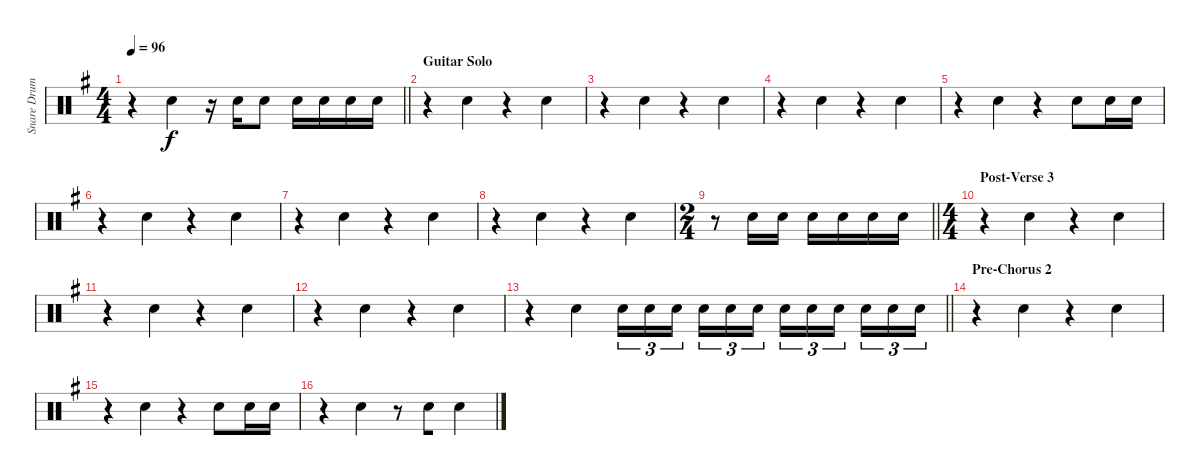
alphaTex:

\track ("Snare Drum - reverb" "Snare Drum") {instrument percussion}
\staff {score}
\articulation defaults
\ts (4 4)
\tempo 96
\clef neutral
\barLineRight lightlight
\ks g
r.4{dy f beam merge} "Snare (hit) 2".4 r.16 "Snare (hit) 2".16 "Snare (hit) 2".8 "Snare (hit) 2".16 "Snare (hit) 2".16 "Snare (hit) 2".16 "Snare (hit) 2".16 |
\section ("" "Guitar Solo")
r.4{beam merge} "Snare (hit) 2".4 r.4{beam merge} "Snare (hit) 2".4 |
r.4{beam merge} "Snare (hit) 2".4 r.4{beam merge} "Snare (hit) 2".4 |
r.4{beam merge} "Snare (hit) 2".4 r.4{beam merge} "Snare (hit) 2".4 |
r.4{beam merge} "Snare (hit) 2".4 r.4 "Snare (hit) 2".8 "Snare (hit) 2".16 "Snare (hit) 2".16 |
r.4{beam merge} "Snare (hit) 2".4 r.4{beam merge} "Snare (hit) 2".4 |
r.4{beam merge} "Snare (hit) 2".4 r.4{beam merge} "Snare (hit) 2".4 |
r.4{beam merge} "Snare (hit) 2".4 r.4{beam merge} "Snare (hit) 2".4 |
\ts (2 4)
\barLineRight lightlight
r.8 "Snare (hit) 2".16 "Snare (hit) 2".16 "Snare (hit) 2".16 "Snare (hit) 2".16 "Snare (hit) 2".16 "Snare (hit) 2".16 |
\ts (4 4)
\section ("" "Post-Verse 3")
r.4{beam merge} "Snare (hit) 2".4 r.4{beam merge} "Snare (hit) 2".4 |
r.4{beam merge} "Snare (hit) 2".4 r.4{beam merge} "Snare (hit) 2".4 |
r.4{beam merge} "Snare (hit) 2".4 r.4{beam merge} "Snare (hit) 2".4 |
\barLineRight lightlight
r.4{beam merge} "Snare (hit) 2".4 "Snare (hit) 2".16{tu (3 2)} "Snare (hit) 2".16{tu (3 2)} "Snare (hit) 2".16{tu (3 2) beam splitsecondary} "Snare (hit) 2".16{tu (3 2)} "Snare (hit) 2".16{tu (3 2)} "Snare (hit) 2".16{tu (3 2)} "Snare (hit) 2".16{tu (3 2)} "Snare (hit) 2".16{tu (3 2)} "Snare (hit) 2".16{tu (3 2) beam splitsecondary} "Snare (hit) 2".16{tu (3 2)} "Snare (hit) 2".16{tu (3 2)} "Snare (hit) 2".16{tu (3 2)} |
\section ("" "Pre-Chorus 2")
r.4{beam merge} "Snare (hit) 2".4 r.4{beam merge} "Snare (hit) 2".4 |
r.4{beam merge} "Snare (hit) 2".4 r.4 "Snare (hit) 2".8 "Snare (hit) 2".16 "Snare (hit) 2".16 |
r.4{beam merge} "Snare (hit) 2".4 r.8 "Snare (hit) 2".8{beam merge} "Snare (hit) 2".4
